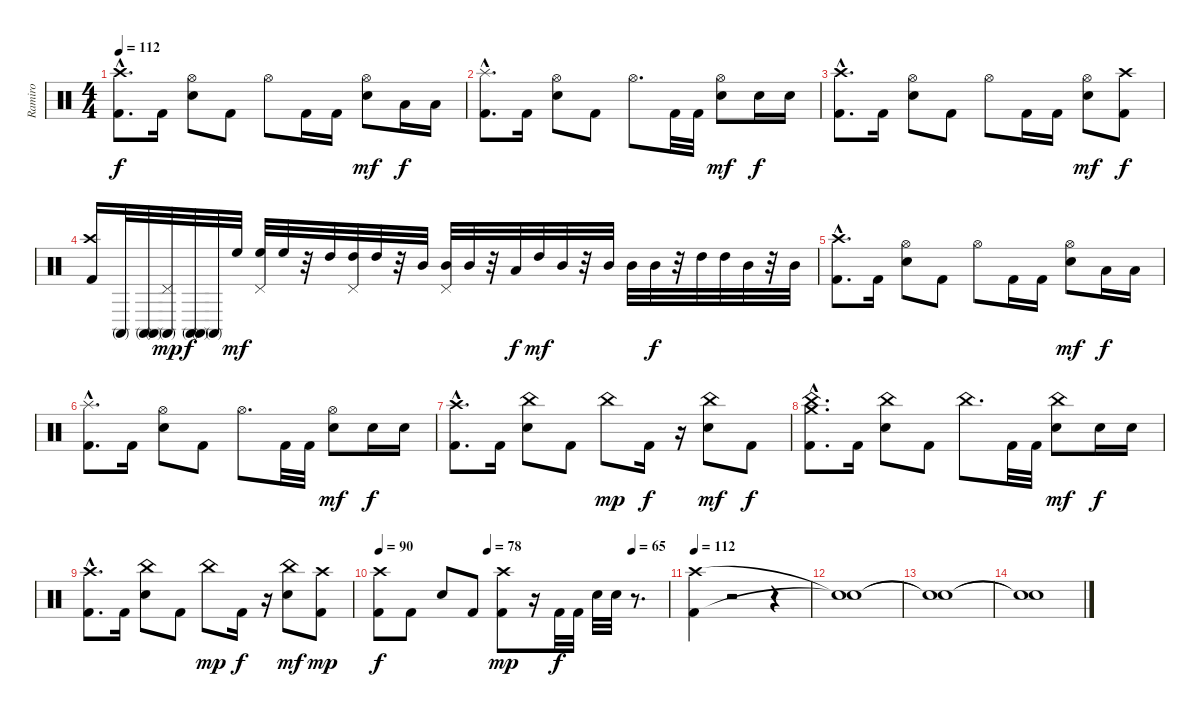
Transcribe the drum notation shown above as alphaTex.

\track ("Ramiro" "Ramiro") {instrument percussion}
\staff {score}
\articulation defaults
\ts (4 4)
\tempo 112
\clef neutral
\ks c
("Kick (hit) 2"{hac} "Crash high (hit)").8{d dy f} "Kick (hit) 2".16 ("Electric Snare (hit)" "Hi-Hat (open)").8 "Kick (hit) 2".8 "Hi-Hat (open)".8 "Kick (hit) 2".16 "Kick (hit) 2".16 ("Electric Snare (hit)" "Hi-Hat (open)").8{dy mf} "Low Tom (hit)".16{dy f} "Low Tom (hit)".16 |
("Kick (hit) 2"{hac} "Splash (hit)").8{d} "Kick (hit) 2".16 ("Electric Snare (hit)" "Hi-Hat (open)").8 "Kick (hit) 2".8 "Hi-Hat (open)".8{d} "Kick (hit) 2".32 "Kick (hit) 2".32 ("Hi-Hat (open)" "Electric Snare (hit)").8{dy mf} "Electric Snare (hit)".16{dy f} "Electric Snare (hit)".16 |
("Crash high (hit)" "Kick (hit) 2"{hac}).8{d} "Kick (hit) 2".16 ("Electric Snare (hit)" "Hi-Hat (open)").8 "Kick (hit) 2".8 "Hi-Hat (open)".8 "Kick (hit) 2".16 "Kick (hit) 2".16 ("Hi-Hat (open)" "Electric Snare (hit)").8{dy mf} ("Kick (hit) 2" "Crash high (hit)").8{dy f} |
("Crash high (hit)" "Kick (hit) 2").16 "Conga high (mute)".32 ("Conga high (mute)" "Conga high (mute)").32 ("Pedal Hi-Hat (hit)" "Conga high (mute)").32{dy mp} ("Conga high (mute)" "Conga high (mute)").32{dy f} "Conga high (mute)".32 "High Floor Tom (hit)".32{dy mf} ("Pedal Hi-Hat (hit)" "High Floor Tom (hit)").32 "High Floor Tom (hit)".32 r.32 "High Tom (hit)".32 ("Pedal Hi-Hat (hit)" "High Tom (hit)").32 "High Tom (hit)".32 r.32 "Mid Tom (hit)".32 ("Pedal Hi-Hat (hit)" "Mid Tom (hit)").32 "Mid Tom (hit)".32 r.32 "Low Tom (hit)".32{dy f} "High Tom (hit)".32{dy mf} "Mid Tom (hit)".32 r.32 "Mid Tom (hit)".32 "Mid Tom (hit)".32 "Mid Tom (hit)".32{dy f} r.32 "High Tom (hit)".32 "High Tom (hit)".32 "Mid Tom (hit)".32 r.32 "Mid Tom (hit)".32 |
("Crash high (hit)" "Kick (hit) 2"{hac}).8{d} "Kick (hit) 2".16 ("Electric Snare (hit)" "Hi-Hat (open)").8 "Kick (hit) 2".8 "Hi-Hat (open)".8 "Kick (hit) 2".16 "Kick (hit) 2".16 ("Electric Snare (hit)" "Hi-Hat (open)").8{dy mf} "Low Tom (hit)".16{dy f} "Low Tom (hit)".16 |
("Kick (hit) 2"{hac} "Splash (hit)").8{d} "Kick (hit) 2".16 ("Electric Snare (hit)" "Hi-Hat (open)").8 "Kick (hit) 2".8 "Hi-Hat (open)".8{d} "Kick (hit) 2".32 "Kick (hit) 2".32 ("Hi-Hat (open)" "Electric Snare (hit)").8{dy mf} "Electric Snare (hit)".16{dy f} "Electric Snare (hit)".16 |
("Kick (hit) 2"{hac} "Crash high (hit)").8{d} "Kick (hit) 2".16 ("Electric Snare (hit)" "China (hit)").8 "Kick (hit) 2".8 "China (hit)".8{dy mp} "Kick (hit) 2".16{dy f} r.16 ("Electric Snare (hit)" "China (hit)").8{dy mf} "Kick (hit) 2".8{dy f} |
("Kick (hit) 2"{hac} "Crash medium (hit)" "China (hit)").8{d} "Kick (hit) 2".16 ("Electric Snare (hit)" "China (hit)").8 "Kick (hit) 2".8 "China (hit)".8{d} "Kick (hit) 2".32 "Kick (hit) 2".32 ("Electric Snare (hit)" "China (hit)").8{dy mf} "Electric Snare (hit)".16{dy f} "Electric Snare (hit)".16 |
("Crash high (hit)" "Kick (hit) 2"{hac}).8{d} "Kick (hit) 2".16 ("Electric Snare (hit)" "China (hit)").8 "Kick (hit) 2".8 "China (hit)".8{dy mp} "Kick (hit) 2".16{dy f} r.16 ("Electric Snare (hit)" "China (hit)").8{dy mf} ("Kick (hit) 2" "Crash high (hit)").8{dy mp} |
\tempo 90
\tempo (78 0.375)
\tempo (65 0.875)
("Crash high (hit)" "Kick (hit) 2").8{dy f} "Kick (hit) 2".8 "Electric Snare (hit)".8 "Kick (hit) 2".8 ("Kick (hit) 2" "Crash high (hit)").8{dy mp} r.16 "Kick (hit) 2".32{dy f} "Kick (hit) 2".32 "Electric Snare (hit)".32 "Electric Snare (hit)".32 r.8{d} |
\tempo 112
("Kick (hit) 2" "Crash high (hit)").4 r.2 r.4 |
("Snare (hit)"{t} "Snare (hit)"{t}).1 |
("Snare (hit)"{t} "Snare (hit)"{t}).1 |
("Snare (hit)"{t} "Snare (hit)"{t}).1
